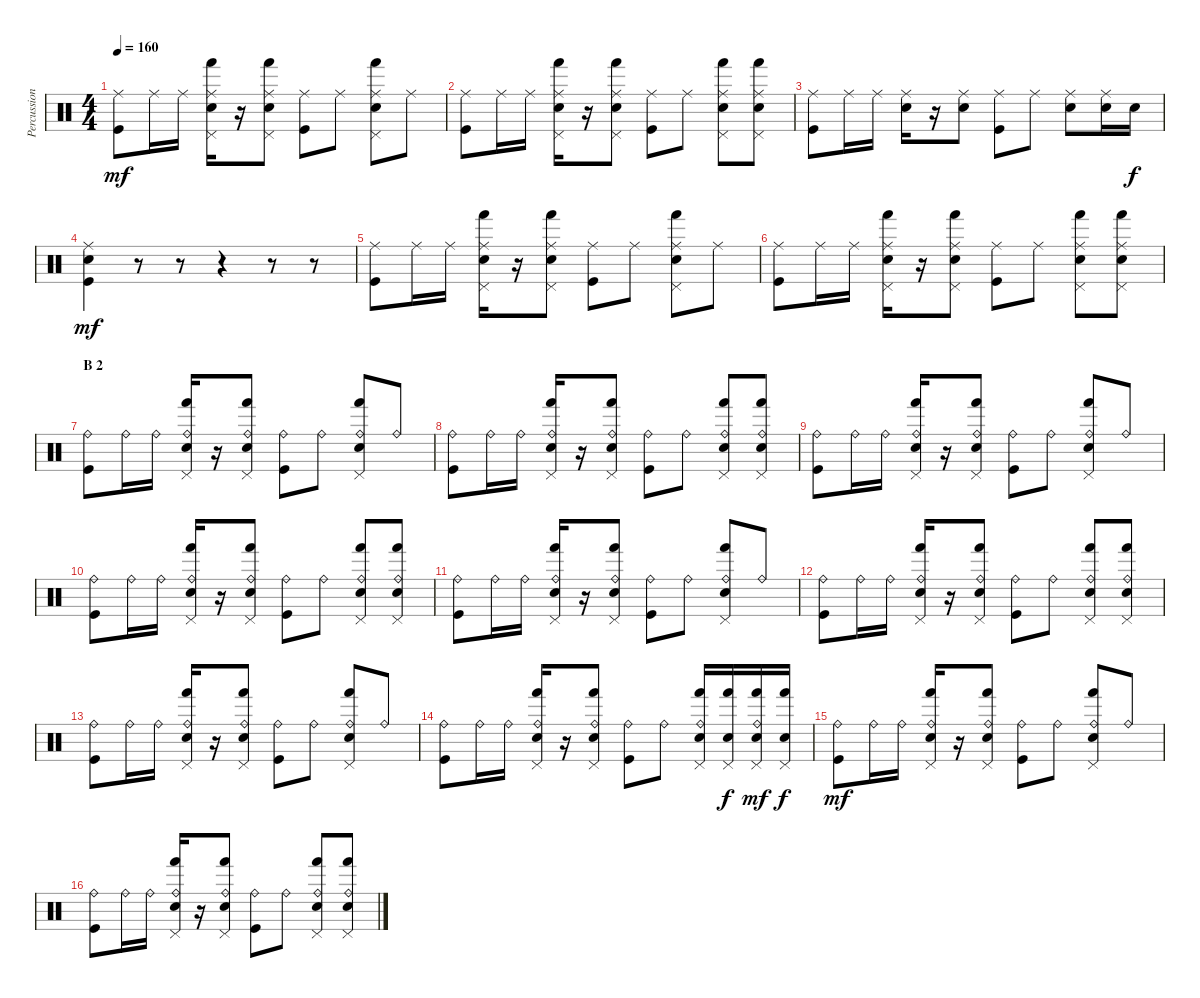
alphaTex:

\track ("Percussion" "Percussion") {instrument percussion}
\staff {score}
\articulation defaults
\ts (4 4)
\tempo 160
\clef neutral
\ks c
("Ride (middle)" "Kick (hit)").8{dy mf} "Ride (middle)".16 "Ride (middle)".16 ("Ride (middle)" "Pedal Hi-Hat (hit)" "Hand (hit)" "Electric Snare (hit)").16 r.16 ("Ride (middle)" "Pedal Hi-Hat (hit)" "Hand (hit)" "Electric Snare (hit)").8 ("Ride (middle)" "Kick (hit)").8 "Ride (middle)".8 ("Ride (middle)" "Pedal Hi-Hat (hit)" "Hand (hit)" "Electric Snare (hit)").8 "Ride (middle)".8 |
("Ride (middle)" "Kick (hit)").8 "Ride (middle)".16 "Ride (middle)".16 ("Ride (middle)" "Pedal Hi-Hat (hit)" "Hand (hit)" "Electric Snare (hit)").16 r.16 ("Ride (middle)" "Pedal Hi-Hat (hit)" "Hand (hit)" "Electric Snare (hit)").8 ("Ride (middle)" "Kick (hit)").8 "Ride (middle)".8 ("Ride (middle)" "Pedal Hi-Hat (hit)" "Hand (hit)" "Electric Snare (hit)").8 ("Ride (middle)" "Pedal Hi-Hat (hit)" "Hand (hit)" "Electric Snare (hit)").8 |
("Ride (middle)" "Kick (hit)").8 "Ride (middle)".16 "Ride (middle)".16 ("Ride (middle)" "Electric Snare (hit)").16 r.16 ("Ride (middle)" "Electric Snare (hit)").8 ("Ride (middle)" "Kick (hit)").8 "Ride (middle)".8 ("Ride (middle)" "Electric Snare (hit)").8 ("Ride (middle)" "Electric Snare (hit)").16 "Electric Snare (hit)".16{dy f} |
("Ride (middle)" "Electric Snare (hit)" "Kick (hit)").4{dy mf} r.8 r.8 r.4 r.8 r.8 |
("Ride (middle)" "Kick (hit)").8 "Ride (middle)".16 "Ride (middle)".16 ("Ride (middle)" "Pedal Hi-Hat (hit)" "Hand (hit)" "Electric Snare (hit)").16 r.16 ("Ride (middle)" "Pedal Hi-Hat (hit)" "Hand (hit)" "Electric Snare (hit)").8 ("Ride (middle)" "Kick (hit)").8 "Ride (middle)".8 ("Ride (middle)" "Pedal Hi-Hat (hit)" "Hand (hit)" "Electric Snare (hit)").8 "Ride (middle)".8 |
("Ride (middle)" "Kick (hit)").8 "Ride (middle)".16 "Ride (middle)".16 ("Ride (middle)" "Pedal Hi-Hat (hit)" "Hand (hit)" "Electric Snare (hit)").16 r.16 ("Ride (middle)" "Pedal Hi-Hat (hit)" "Hand (hit)" "Electric Snare (hit)").8 ("Ride (middle)" "Kick (hit)").8 "Ride (middle)".8 ("Ride (middle)" "Pedal Hi-Hat (hit)" "Hand (hit)" "Electric Snare (hit)").8 ("Ride (middle)" "Pedal Hi-Hat (hit)" "Hand (hit)" "Electric Snare (hit)").8 |
\section ("" "B 2")
("Ride (bell)" "Kick (hit)").8 "Ride (bell)".16 "Ride (bell)".16 ("Ride (bell)" "Pedal Hi-Hat (hit)" "Hand (hit)" "Electric Snare (hit)").16 r.16 ("Ride (bell)" "Pedal Hi-Hat (hit)" "Hand (hit)" "Electric Snare (hit)").8 ("Ride (bell)" "Kick (hit)").8 "Ride (bell)".8 ("Ride (bell)" "Pedal Hi-Hat (hit)" "Hand (hit)" "Electric Snare (hit)").8 "Ride (bell)".8 |
("Ride (bell)" "Kick (hit)").8 "Ride (bell)".16 "Ride (bell)".16 ("Ride (bell)" "Pedal Hi-Hat (hit)" "Hand (hit)" "Electric Snare (hit)").16 r.16 ("Ride (bell)" "Pedal Hi-Hat (hit)" "Hand (hit)" "Electric Snare (hit)").8 ("Ride (bell)" "Kick (hit)").8 "Ride (bell)".8 ("Ride (bell)" "Pedal Hi-Hat (hit)" "Hand (hit)" "Electric Snare (hit)").8 ("Ride (bell)" "Pedal Hi-Hat (hit)" "Hand (hit)" "Electric Snare (hit)").8 |
("Ride (bell)" "Kick (hit)").8 "Ride (bell)".16 "Ride (bell)".16 ("Ride (bell)" "Pedal Hi-Hat (hit)" "Hand (hit)" "Electric Snare (hit)").16 r.16 ("Ride (bell)" "Pedal Hi-Hat (hit)" "Hand (hit)" "Electric Snare (hit)").8 ("Ride (bell)" "Kick (hit)").8 "Ride (bell)".8 ("Ride (bell)" "Pedal Hi-Hat (hit)" "Hand (hit)" "Electric Snare (hit)").8 "Ride (bell)".8 |
("Ride (bell)" "Kick (hit)").8 "Ride (bell)".16 "Ride (bell)".16 ("Ride (bell)" "Pedal Hi-Hat (hit)" "Hand (hit)" "Electric Snare (hit)").16 r.16 ("Ride (bell)" "Pedal Hi-Hat (hit)" "Hand (hit)" "Electric Snare (hit)").8 ("Ride (bell)" "Kick (hit)").8 "Ride (bell)".8 ("Ride (bell)" "Pedal Hi-Hat (hit)" "Hand (hit)" "Electric Snare (hit)").8 ("Ride (bell)" "Pedal Hi-Hat (hit)" "Hand (hit)" "Electric Snare (hit)").8 |
("Ride (bell)" "Kick (hit)").8 "Ride (bell)".16 "Ride (bell)".16 ("Ride (bell)" "Pedal Hi-Hat (hit)" "Hand (hit)" "Electric Snare (hit)").16 r.16 ("Ride (bell)" "Pedal Hi-Hat (hit)" "Hand (hit)" "Electric Snare (hit)").8 ("Ride (bell)" "Kick (hit)").8 "Ride (bell)".8 ("Ride (bell)" "Pedal Hi-Hat (hit)" "Hand (hit)" "Electric Snare (hit)").8 "Ride (bell)".8 |
("Ride (bell)" "Kick (hit)").8 "Ride (bell)".16 "Ride (bell)".16 ("Ride (bell)" "Pedal Hi-Hat (hit)" "Hand (hit)" "Electric Snare (hit)").16 r.16 ("Ride (bell)" "Pedal Hi-Hat (hit)" "Hand (hit)" "Electric Snare (hit)").8 ("Ride (bell)" "Kick (hit)").8 "Ride (bell)".8 ("Ride (bell)" "Pedal Hi-Hat (hit)" "Hand (hit)" "Electric Snare (hit)").8 ("Ride (bell)" "Pedal Hi-Hat (hit)" "Hand (hit)" "Electric Snare (hit)").8 |
("Ride (bell)" "Kick (hit)").8 "Ride (bell)".16 "Ride (bell)".16 ("Ride (bell)" "Pedal Hi-Hat (hit)" "Hand (hit)" "Electric Snare (hit)").16 r.16 ("Ride (bell)" "Pedal Hi-Hat (hit)" "Hand (hit)" "Electric Snare (hit)").8 ("Ride (bell)" "Kick (hit)").8 "Ride (bell)".8 ("Ride (bell)" "Pedal Hi-Hat (hit)" "Hand (hit)" "Electric Snare (hit)").8 "Ride (bell)".8 |
("Ride (bell)" "Kick (hit)").8 "Ride (bell)".16 "Ride (bell)".16 ("Ride (bell)" "Pedal Hi-Hat (hit)" "Hand (hit)" "Electric Snare (hit)").16 r.16 ("Ride (bell)" "Pedal Hi-Hat (hit)" "Hand (hit)" "Electric Snare (hit)").8 ("Ride (bell)" "Kick (hit)").8 "Ride (bell)".8 ("Ride (bell)" "Pedal Hi-Hat (hit)" "Hand (hit)" "Electric Snare (hit)").16 ("Pedal Hi-Hat (hit)" "Hand (hit)" "Electric Snare (hit)").16{dy f} ("Ride (bell)" "Pedal Hi-Hat (hit)" "Hand (hit)" "Electric Snare (hit)").16{dy mf} ("Pedal Hi-Hat (hit)" "Hand (hit)" "Electric Snare (hit)").16{dy f} |
("Ride (bell)" "Kick (hit)").8{dy mf} "Ride (bell)".16 "Ride (bell)".16 ("Ride (bell)" "Pedal Hi-Hat (hit)" "Hand (hit)" "Electric Snare (hit)").16 r.16 ("Ride (bell)" "Pedal Hi-Hat (hit)" "Hand (hit)" "Electric Snare (hit)").8 ("Ride (bell)" "Kick (hit)").8 "Ride (bell)".8 ("Ride (bell)" "Pedal Hi-Hat (hit)" "Hand (hit)" "Electric Snare (hit)").8 "Ride (bell)".8 |
("Ride (bell)" "Kick (hit)").8 "Ride (bell)".16 "Ride (bell)".16 ("Ride (bell)" "Pedal Hi-Hat (hit)" "Hand (hit)" "Electric Snare (hit)").16 r.16 ("Ride (bell)" "Pedal Hi-Hat (hit)" "Hand (hit)" "Electric Snare (hit)").8 ("Ride (bell)" "Kick (hit)").8 "Ride (bell)".8 ("Ride (bell)" "Pedal Hi-Hat (hit)" "Hand (hit)" "Electric Snare (hit)").8 ("Ride (bell)" "Pedal Hi-Hat (hit)" "Hand (hit)" "Electric Snare (hit)").8
